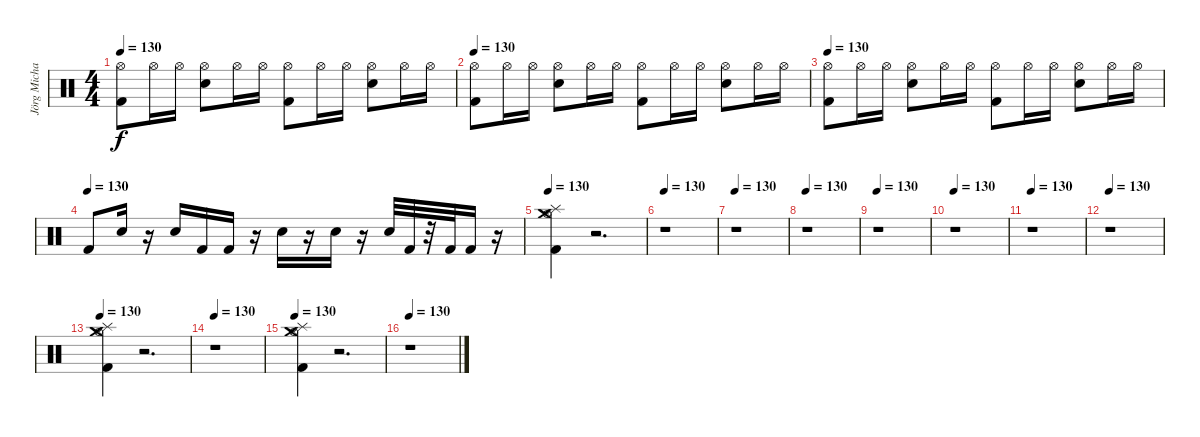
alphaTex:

\track ("Jörg Michael (Drums)" "Jörg Micha") {instrument percussion}
\staff {score}
\articulation defaults
\ts (4 4)
\tempo 130
\clef neutral
\ks c
("Hi-Hat (open)" "Kick (hit) 2").8{dy f} "Hi-Hat (open)".16 "Hi-Hat (open)".16 ("Hi-Hat (open)" "Electric Snare (hit)").8 "Hi-Hat (open)".16 "Hi-Hat (open)".16 ("Hi-Hat (open)" "Kick (hit) 2").8 "Hi-Hat (open)".16 "Hi-Hat (open)".16 ("Hi-Hat (open)" "Electric Snare (hit)").8 "Hi-Hat (open)".16 "Hi-Hat (open)".16 |
\tempo 130
("Hi-Hat (open)" "Kick (hit) 2").8 "Hi-Hat (open)".16 "Hi-Hat (open)".16 ("Hi-Hat (open)" "Electric Snare (hit)").8 "Hi-Hat (open)".16 "Hi-Hat (open)".16 ("Hi-Hat (open)" "Kick (hit) 2").8 "Hi-Hat (open)".16 "Hi-Hat (open)".16 ("Hi-Hat (open)" "Electric Snare (hit)").8 "Hi-Hat (open)".16 "Hi-Hat (open)".16 |
\tempo 130
("Hi-Hat (open)" "Kick (hit) 2").8 "Hi-Hat (open)".16 "Hi-Hat (open)".16 ("Hi-Hat (open)" "Electric Snare (hit)").8 "Hi-Hat (open)".16 "Hi-Hat (open)".16 ("Hi-Hat (open)" "Kick (hit) 2").8 "Hi-Hat (open)".16 "Hi-Hat (open)".16 ("Hi-Hat (open)" "Electric Snare (hit)").8 "Hi-Hat (open)".16 "Hi-Hat (open)".16 |
\tempo (130)
"Kick (hit) 2".8 "Electric Snare (hit)".16 r.16 "Electric Snare (hit)".16 "Kick (hit) 2".16 "Kick (hit) 2".16 r.16 "Electric Snare (hit)".16 r.16 "Electric Snare (hit)".16 r.16 "Electric Snare (hit)".32 "Kick (hit) 2".32 r.32 "Kick (hit) 2".32 "Kick (hit) 2".16 r.16 |
\tempo 130
("Splash (hit)" "Crash medium (hit)" "Hi-Hat (open)" "Kick (hit) 2").4 r.2{d} |
\tempo 130
r.1 |
\tempo 130
r.1 |
\tempo 130
r.1 |
\tempo 130
r.1 |
\tempo 130
r.1 |
\tempo 130
r.1 |
\tempo 130
r.1 |
\tempo 130
("Hi-Hat (open)" "Crash medium (hit)" "Splash (hit)" "Kick (hit) 2").4 r.2{d} |
\tempo 130
r.1 |
\tempo 130
("Crash medium (hit)" "Splash (hit)" "Hi-Hat (open)" "Kick (hit) 2").4 r.2{d} |
\tempo 130
r.1
